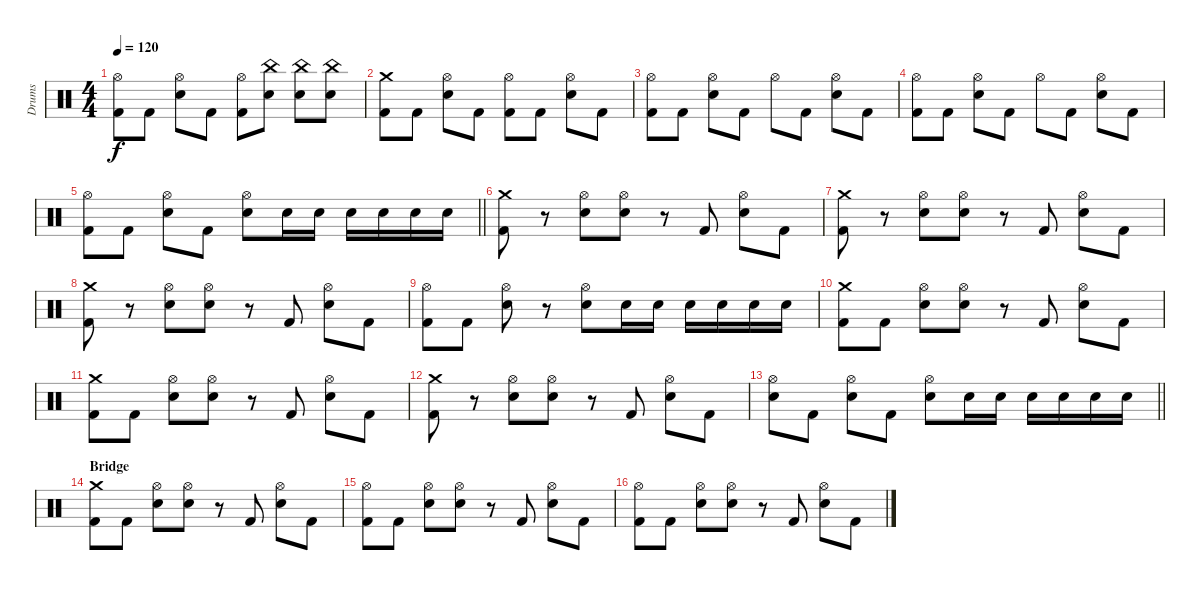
\track ("Drums" "Drums") {instrument percussion}
\staff {score}
\articulation defaults
\ts (4 4)
\tempo 120
\clef neutral
\ks c
("Hi-Hat (open)" "Kick (hit) 2").8{dy f} "Kick (hit) 2".8 ("Hi-Hat (open)" "Electric Snare (hit)").8 "Kick (hit) 2".8 ("Hi-Hat (open)" "Kick (hit) 2").8 ("China (hit)" "Electric Snare (hit)").8 ("China (hit)" "Electric Snare (hit)").8 ("China (hit)" "Electric Snare (hit)").8 |
("Crash medium (hit)" "Kick (hit) 2").8 "Kick (hit) 2".8 ("Hi-Hat (open)" "Electric Snare (hit)").8 "Kick (hit) 2".8 ("Hi-Hat (open)" "Kick (hit) 2").8 "Kick (hit) 2".8 ("Hi-Hat (open)" "Electric Snare (hit)").8 "Kick (hit) 2".8 |
("Hi-Hat (open)" "Kick (hit) 2").8 "Kick (hit) 2".8 ("Hi-Hat (open)" "Electric Snare (hit)").8 "Kick (hit) 2".8 "Hi-Hat (open)".8 "Kick (hit) 2".8 ("Hi-Hat (open)" "Electric Snare (hit)").8 "Kick (hit) 2".8 |
("Hi-Hat (open)" "Kick (hit) 2").8 "Kick (hit) 2".8 ("Hi-Hat (open)" "Electric Snare (hit)").8 "Kick (hit) 2".8 "Hi-Hat (open)".8 "Kick (hit) 2".8 ("Hi-Hat (open)" "Electric Snare (hit)").8 "Kick (hit) 2".8 |
\barLineRight lightlight
("Hi-Hat (open)" "Kick (hit) 2").8 "Kick (hit) 2".8 ("Hi-Hat (open)" "Electric Snare (hit)").8 "Kick (hit) 2".8 ("Hi-Hat (open)" "Electric Snare (hit)").8 "Electric Snare (hit)".16 "Electric Snare (hit)".16 "Electric Snare (hit)".16 "Electric Snare (hit)".16 "Electric Snare (hit)".16 "Electric Snare (hit)".16 |
\section ("" "")
("Crash medium (hit)" "Kick (hit) 2").8 r.8 ("Hi-Hat (open)" "Electric Snare (hit)").8 ("Hi-Hat (open)" "Electric Snare (hit)").8 r.8 "Kick (hit) 2".8 ("Hi-Hat (open)" "Electric Snare (hit)").8 "Kick (hit) 2".8 |
("Crash medium (hit)" "Kick (hit) 2").8 r.8 ("Hi-Hat (open)" "Electric Snare (hit)").8 ("Hi-Hat (open)" "Electric Snare (hit)").8 r.8 "Kick (hit) 2".8 ("Hi-Hat (open)" "Electric Snare (hit)").8 "Kick (hit) 2".8 |
("Crash medium (hit)" "Kick (hit) 2").8 r.8 ("Hi-Hat (open)" "Electric Snare (hit)").8 ("Hi-Hat (open)" "Electric Snare (hit)").8 r.8 "Kick (hit) 2".8 ("Hi-Hat (open)" "Electric Snare (hit)").8 "Kick (hit) 2".8 |
("Hi-Hat (open)" "Kick (hit) 2").8 "Kick (hit) 2".8 ("Hi-Hat (open)" "Electric Snare (hit)").8 r.8 ("Hi-Hat (open)" "Electric Snare (hit)").8 "Electric Snare (hit)".16 "Electric Snare (hit)".16 "Electric Snare (hit)".16 "Electric Snare (hit)".16 "Electric Snare (hit)".16 "Electric Snare (hit)".16 |
("Crash medium (hit)" "Kick (hit) 2").8 "Kick (hit) 2".8 ("Hi-Hat (open)" "Electric Snare (hit)").8 ("Hi-Hat (open)" "Electric Snare (hit)").8 r.8 "Kick (hit) 2".8 ("Hi-Hat (open)" "Electric Snare (hit)").8 "Kick (hit) 2".8 |
("Crash medium (hit)" "Kick (hit) 2").8 "Kick (hit) 2".8 ("Hi-Hat (open)" "Electric Snare (hit)").8 ("Hi-Hat (open)" "Electric Snare (hit)").8 r.8 "Kick (hit) 2".8 ("Hi-Hat (open)" "Electric Snare (hit)").8 "Kick (hit) 2".8 |
("Crash medium (hit)" "Kick (hit) 2").8 r.8 ("Hi-Hat (open)" "Electric Snare (hit)").8 ("Hi-Hat (open)" "Electric Snare (hit)").8 r.8 "Kick (hit) 2".8 ("Hi-Hat (open)" "Electric Snare (hit)").8 "Kick (hit) 2".8 |
\barLineRight lightlight
("Hi-Hat (open)" "Electric Snare (hit)").8 "Kick (hit) 2".8 ("Hi-Hat (open)" "Electric Snare (hit)").8 "Kick (hit) 2".8 ("Hi-Hat (open)" "Electric Snare (hit)").8 "Electric Snare (hit)".16 "Electric Snare (hit)".16 "Electric Snare (hit)".16 "Electric Snare (hit)".16 "Electric Snare (hit)".16 "Electric Snare (hit)".16 |
\section ("" "Bridge")
("Crash medium (hit)" "Kick (hit) 2").8 "Kick (hit) 2".8 ("Hi-Hat (open)" "Electric Snare (hit)").8 ("Hi-Hat (open)" "Electric Snare (hit)").8 r.8 "Kick (hit) 2".8 ("Hi-Hat (open)" "Electric Snare (hit)").8 "Kick (hit) 2".8 |
("Hi-Hat (open)" "Kick (hit) 2").8 "Kick (hit) 2".8 ("Hi-Hat (open)" "Electric Snare (hit)").8 ("Hi-Hat (open)" "Electric Snare (hit)").8 r.8 "Kick (hit) 2".8 ("Hi-Hat (open)" "Electric Snare (hit)").8 "Kick (hit) 2".8 |
("Hi-Hat (open)" "Kick (hit) 2").8 "Kick (hit) 2".8 ("Hi-Hat (open)" "Electric Snare (hit)").8 ("Hi-Hat (open)" "Electric Snare (hit)").8 r.8 "Kick (hit) 2".8 ("Hi-Hat (open)" "Electric Snare (hit)").8 "Kick (hit) 2".8
